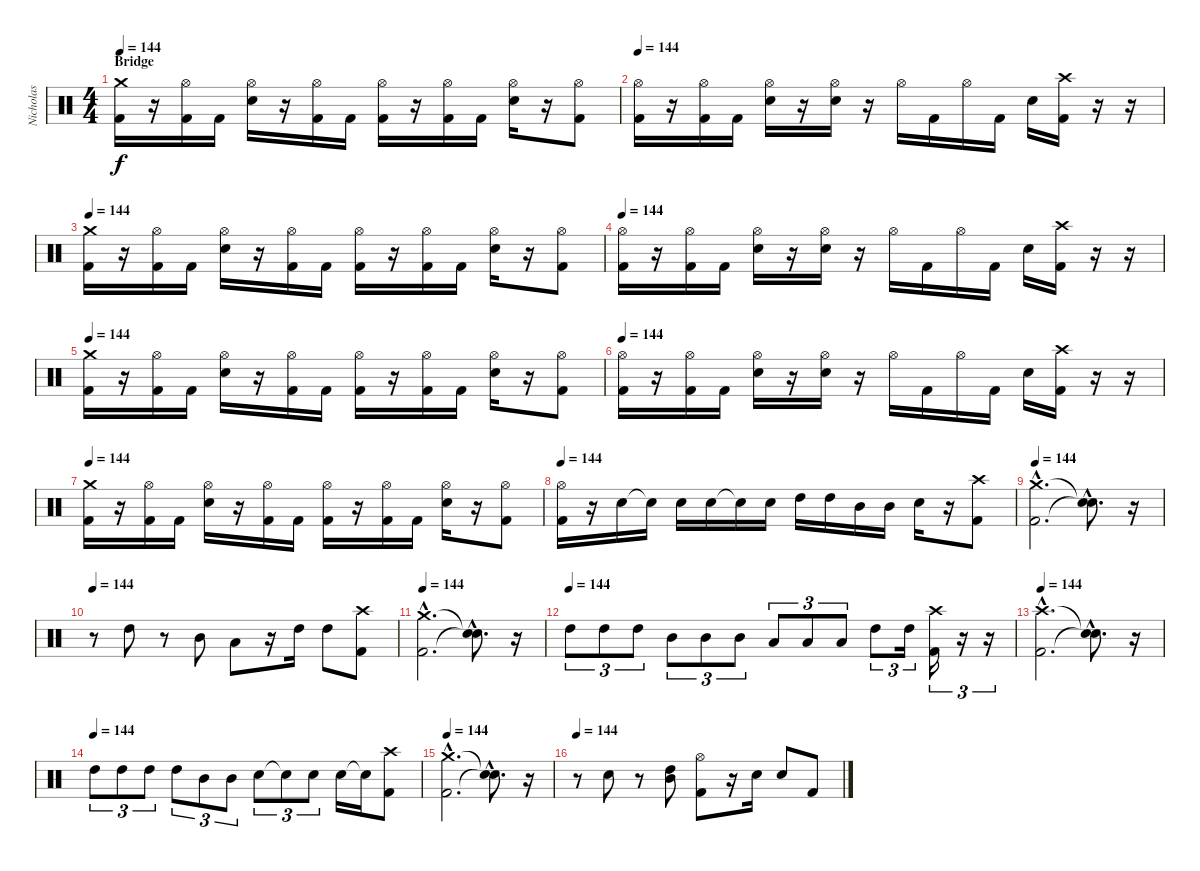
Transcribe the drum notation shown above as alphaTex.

\track ("Nicholas" "Nicholas") {instrument percussion}
\staff {score}
\articulation defaults
\ts (4 4)
\section ("" "Bridge")
\tempo 144
\clef neutral
\ks c
("Crash medium (hit)" "Kick (hit) 2").16{dy f} r.16 ("Hi-Hat (open)" "Kick (hit) 2").16 "Kick (hit) 2".16 ("Hi-Hat (open)" "Snare (hit) 2").16 r.16 ("Hi-Hat (open)" "Kick (hit) 2").16 "Kick (hit) 2".16 ("Hi-Hat (open)" "Kick (hit) 2").16 r.16 ("Hi-Hat (open)" "Kick (hit) 2").16 "Kick (hit) 2".16 ("Hi-Hat (open)" "Snare (hit) 2").16 r.16 ("Hi-Hat (open)" "Kick (hit) 2").8 |
\tempo 144
("Hi-Hat (open)" "Kick (hit) 2").16 r.16 ("Hi-Hat (open)" "Kick (hit) 2").16 "Kick (hit) 2".16 ("Hi-Hat (open)" "Snare (hit) 2").16 r.16 ("Hi-Hat (open)" "Snare (hit) 2").16 r.16 "Hi-Hat (open)".16 "Kick (hit) 2".16 "Hi-Hat (open)".16 "Kick (hit) 2".16 "Snare (hit) 2".16 ("Crash high (hit)" "Kick (hit) 2").16 r.16 r.16 |
\tempo 144
("Crash medium (hit)" "Kick (hit) 2").16 r.16 ("Hi-Hat (open)" "Kick (hit) 2").16 "Kick (hit) 2".16 ("Hi-Hat (open)" "Snare (hit) 2").16 r.16 ("Hi-Hat (open)" "Kick (hit) 2").16 "Kick (hit) 2".16 ("Hi-Hat (open)" "Kick (hit) 2").16 r.16 ("Hi-Hat (open)" "Kick (hit) 2").16 "Kick (hit) 2".16 ("Hi-Hat (open)" "Snare (hit) 2").16 r.16 ("Hi-Hat (open)" "Kick (hit) 2").8 |
\tempo 144
("Hi-Hat (open)" "Kick (hit) 2").16 r.16 ("Hi-Hat (open)" "Kick (hit) 2").16 "Kick (hit) 2".16 ("Hi-Hat (open)" "Snare (hit) 2").16 r.16 ("Hi-Hat (open)" "Snare (hit) 2").16 r.16 "Hi-Hat (open)".16 "Kick (hit) 2".16 "Hi-Hat (open)".16 "Kick (hit) 2".16 "Snare (hit) 2".16 ("Crash high (hit)" "Kick (hit) 2").16 r.16 r.16 |
\tempo 144
("Crash medium (hit)" "Kick (hit) 2").16 r.16 ("Hi-Hat (open)" "Kick (hit) 2").16 "Kick (hit) 2".16 ("Hi-Hat (open)" "Snare (hit) 2").16 r.16 ("Hi-Hat (open)" "Kick (hit) 2").16 "Kick (hit) 2".16 ("Hi-Hat (open)" "Kick (hit) 2").16 r.16 ("Hi-Hat (open)" "Kick (hit) 2").16 "Kick (hit) 2".16 ("Hi-Hat (open)" "Snare (hit) 2").16 r.16 ("Hi-Hat (open)" "Kick (hit) 2").8 |
\tempo 144
("Hi-Hat (open)" "Kick (hit) 2").16 r.16 ("Hi-Hat (open)" "Kick (hit) 2").16 "Kick (hit) 2".16 ("Hi-Hat (open)" "Snare (hit) 2").16 r.16 ("Hi-Hat (open)" "Snare (hit) 2").16 r.16 "Hi-Hat (open)".16 "Kick (hit) 2".16 "Hi-Hat (open)".16 "Kick (hit) 2".16 "Snare (hit) 2".16 ("Crash high (hit)" "Kick (hit) 2").16 r.16 r.16 |
\tempo 144
("Crash medium (hit)" "Kick (hit) 2").16 r.16 ("Hi-Hat (open)" "Kick (hit) 2").16 "Kick (hit) 2".16 ("Hi-Hat (open)" "Snare (hit) 2").16 r.16 ("Hi-Hat (open)" "Kick (hit) 2").16 "Kick (hit) 2".16 ("Hi-Hat (open)" "Kick (hit) 2").16 r.16 ("Hi-Hat (open)" "Kick (hit) 2").16 "Kick (hit) 2".16 ("Hi-Hat (open)" "Snare (hit) 2").16 r.16 ("Hi-Hat (open)" "Kick (hit) 2").8 |
\tempo 144
("Hi-Hat (open)" "Kick (hit) 2").16 r.16 "Snare (hit) 2".16 "Snare (hit)"{t}.16 "Snare (hit) 2".16 "Snare (hit) 2".16 "Snare (hit)"{t}.16 "Snare (hit) 2".16 "High Tom (hit)".16 "High Tom (hit)".16 "Mid Tom (hit)".16 "Mid Tom (hit)".16 "Snare (hit) 2".16 r.16 ("Crash high (hit)" "Kick (hit) 2").8 |
\tempo 144
("Crash medium (hit)"{hac} "Kick (hit) 2"{hac}).2{d} ("Snare (hit)"{hac t} "Snare (hit)"{hac t}).8{d} r.16 |
\tempo 144
r.8 "High Tom (hit)".8 r.8 "Mid Tom (hit)".8 "Low Tom (hit)".8 r.16 "High Tom (hit)".16 "High Tom (hit)".8 ("Crash high (hit)" "Kick (hit) 2").8 |
\tempo 144
("Crash medium (hit)"{hac} "Kick (hit) 2"{hac}).2{d} ("Snare (hit)"{hac t} "Snare (hit)"{hac t}).8{d} r.16 |
\tempo (144)
"High Tom (hit)".8{tu (3 2)} "High Tom (hit)".8{tu (3 2)} "High Tom (hit)".8{tu (3 2)} "Mid Tom (hit)".8{tu (3 2)} "Mid Tom (hit)".8{tu (3 2)} "Mid Tom (hit)".8{tu (3 2)} "Low Tom (hit)".8{tu (3 2)} "Low Tom (hit)".8{tu (3 2)} "Low Tom (hit)".8{tu (3 2)} "High Tom (hit)".8{tu (3 2)} "High Tom (hit)".16{tu (3 2)} ("Crash high (hit)" "Kick (hit) 2").16{tu (3 2)} r.16{tu (3 2)} r.16{tu (3 2)} |
\tempo 144
("Crash high (hit)"{hac} "Kick (hit) 2"{hac}).2{d} ("Snare (hit)"{hac t} "Snare (hit)"{hac t}).8{d} r.16 |
\tempo (144)
"High Tom (hit)".8{tu (3 2)} "High Tom (hit)".8{tu (3 2)} "High Tom (hit)".8{tu (3 2)} "High Tom (hit)".8{tu (3 2)} "Mid Tom (hit)".8{tu (3 2)} "Mid Tom (hit)".8{tu (3 2)} "Snare (hit) 2".8{tu (3 2)} "Snare (hit)"{t}.8{tu (3 2)} "Snare (hit) 2".8{tu (3 2)} "Snare (hit) 2".16 "Snare (hit)"{t}.16 ("Crash high (hit)" "Kick (hit) 2").8 |
\tempo 144
("Crash medium (hit)"{hac} "Kick (hit) 2"{hac}).2{d} ("Snare (hit)"{hac t} "Snare (hit)"{hac t}).8{d} r.16 |
\tempo 144
r.8 "Snare (hit) 2".8 r.8 ("High Tom (hit)" "Mid Tom (hit)").8 ("Hi-Hat (open)" "Kick (hit) 2").8 r.16 "Snare (hit) 2".16 "Snare (hit) 2".8 "Kick (hit) 2".8
